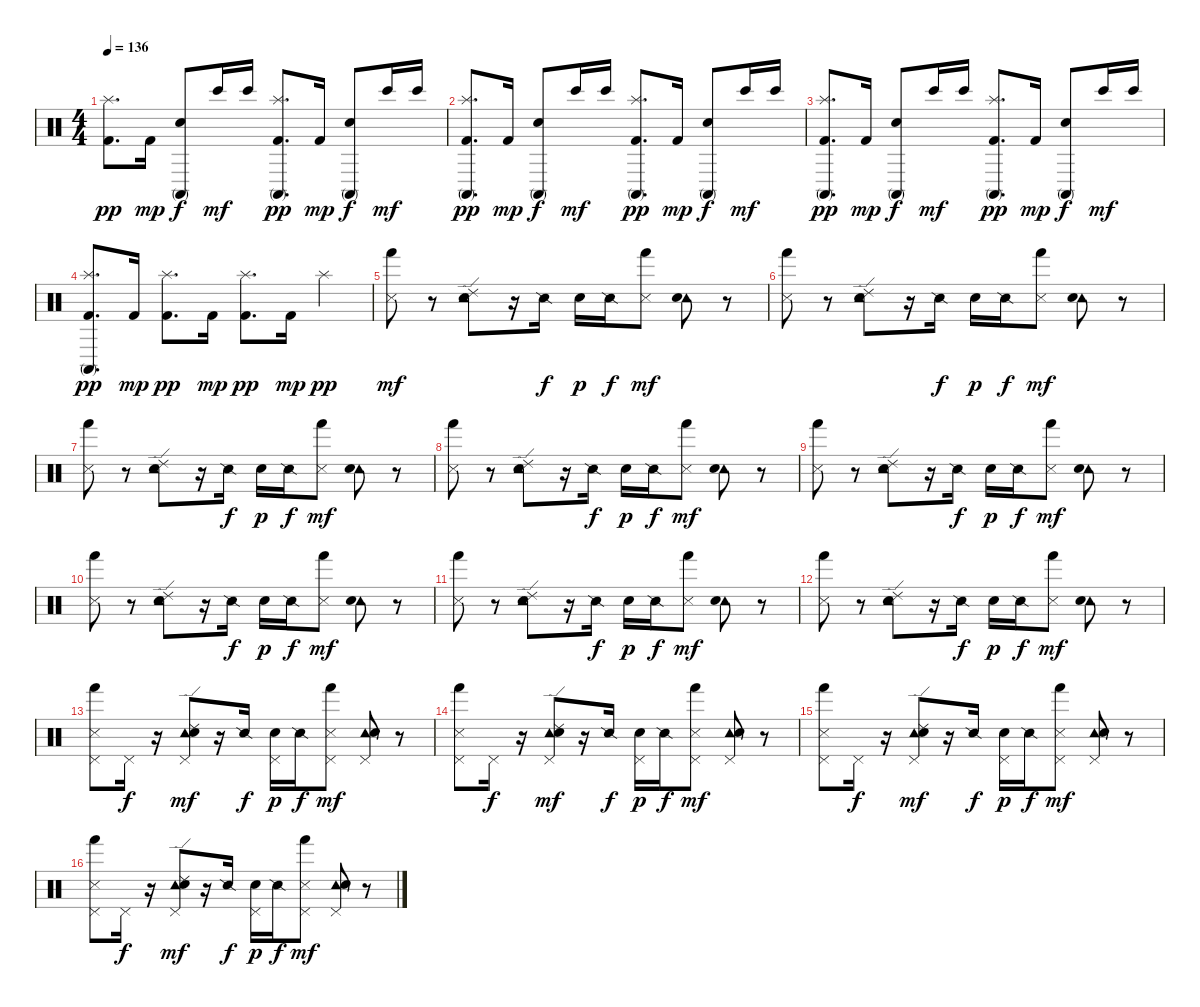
\track "" {instrument percussion}
\staff {score}
\articulation defaults
\ts (4 4)
\tempo 136
\clef neutral
\ks c
("Kick (hit) 2" "Splash (hit)").8{d dy pp} "Kick (hit) 2".16{dy mp} ("Snare (hit)" "Conga high (mute)").8{dy f} "Bongo High (hit)".16{dy mf} "Bongo High (hit)".16 ("Conga high (mute)" "Kick (hit) 2" "Splash (hit)").8{d dy pp} "Kick (hit) 2".16{dy mp} ("Snare (hit)" "Conga high (mute)").8{dy f} "Bongo High (hit)".16{dy mf} "Bongo High (hit)".16 |
("Conga high (mute)" "Kick (hit) 2" "Splash (hit)").8{d dy pp} "Kick (hit) 2".16{dy mp} ("Snare (hit)" "Conga high (mute)").8{dy f} "Bongo High (hit)".16{dy mf} "Bongo High (hit)".16 ("Conga high (mute)" "Kick (hit) 2" "Splash (hit)").8{d dy pp} "Kick (hit) 2".16{dy mp} ("Snare (hit)" "Conga high (mute)").8{dy f} "Bongo High (hit)".16{dy mf} "Bongo High (hit)".16 |
("Conga high (mute)" "Kick (hit) 2" "Splash (hit)").8{d dy pp} "Kick (hit) 2".16{dy mp} ("Snare (hit)" "Conga high (mute)").8{dy f} "Bongo High (hit)".16{dy mf} "Bongo High (hit)".16 ("Conga high (mute)" "Kick (hit) 2" "Splash (hit)").8{d dy pp} "Kick (hit) 2".16{dy mp} ("Snare (hit)" "Conga high (mute)").8{dy f} "Bongo High (hit)".16{dy mf} "Bongo High (hit)".16 |
("Conga high (mute)" "Kick (hit) 2" "Splash (hit)").8{d dy pp} "Kick (hit) 2".16{dy mp} ("Kick (hit) 2" "Splash (hit)").8{d dy pp} "Kick (hit) 2".16{dy mp} ("Kick (hit) 2" "Splash (hit)").8{d dy pp} "Kick (hit) 2".16{dy mp} "Splash (hit)".4{dy pp} |
("Hand (hit)" "Metronome (hit)").8{dy mf} r.8 ("Tambourine (hit)" "Metronome (bell)" "Ride (edge) 2").8 r.16 "Snare (side stick) 2".16{dy f} "Metronome (bell)".16{dy p} "Snare (side stick) 2".16{dy f} ("Metronome (hit)" "Hand (hit)").8{dy mf} ("Tambourine (hit)" "Metronome (bell)").8 r.8 |
("Hand (hit)" "Metronome (hit)").8 r.8 ("Tambourine (hit)" "Metronome (bell)" "Ride (edge) 2").8 r.16 "Snare (side stick) 2".16{dy f} "Metronome (bell)".16{dy p} "Snare (side stick) 2".16{dy f} ("Metronome (hit)" "Hand (hit)").8{dy mf} ("Tambourine (hit)" "Metronome (bell)").8 r.8 |
("Hand (hit)" "Metronome (hit)").8 r.8 ("Tambourine (hit)" "Metronome (bell)" "Ride (edge) 2").8 r.16 "Snare (side stick) 2".16{dy f} "Metronome (bell)".16{dy p} "Snare (side stick) 2".16{dy f} ("Metronome (hit)" "Hand (hit)").8{dy mf} ("Tambourine (hit)" "Metronome (bell)").8 r.8 |
("Hand (hit)" "Metronome (hit)").8 r.8 ("Tambourine (hit)" "Metronome (bell)" "Ride (edge) 2").8 r.16 "Snare (side stick) 2".16{dy f} "Metronome (bell)".16{dy p} "Snare (side stick) 2".16{dy f} ("Metronome (hit)" "Hand (hit)").8{dy mf} ("Tambourine (hit)" "Metronome (bell)").8 r.8 |
("Hand (hit)" "Metronome (hit)").8 r.8 ("Tambourine (hit)" "Metronome (bell)" "Ride (edge) 2").8 r.16 "Snare (side stick) 2".16{dy f} "Metronome (bell)".16{dy p} "Snare (side stick) 2".16{dy f} ("Metronome (hit)" "Hand (hit)").8{dy mf} ("Tambourine (hit)" "Metronome (bell)").8 r.8 |
("Hand (hit)" "Metronome (hit)").8 r.8 ("Tambourine (hit)" "Metronome (bell)" "Ride (edge) 2").8 r.16 "Snare (side stick) 2".16{dy f} "Metronome (bell)".16{dy p} "Snare (side stick) 2".16{dy f} ("Metronome (hit)" "Hand (hit)").8{dy mf} ("Tambourine (hit)" "Metronome (bell)").8 r.8 |
("Hand (hit)" "Metronome (hit)").8 r.8 ("Tambourine (hit)" "Metronome (bell)" "Ride (edge) 2").8 r.16 "Snare (side stick) 2".16{dy f} "Metronome (bell)".16{dy p} "Snare (side stick) 2".16{dy f} ("Metronome (hit)" "Hand (hit)").8{dy mf} ("Tambourine (hit)" "Metronome (bell)").8 r.8 |
("Hand (hit)" "Metronome (hit)").8 r.8 ("Tambourine (hit)" "Metronome (bell)" "Ride (edge) 2").8 r.16 "Snare (side stick) 2".16{dy f} "Metronome (bell)".16{dy p} "Snare (side stick) 2".16{dy f} ("Metronome (hit)" "Hand (hit)").8{dy mf} ("Tambourine (hit)" "Metronome (bell)").8 r.8 |
("Hand (hit)" "Pedal Hi-Hat (hit)" "Metronome (hit)").8 "Pedal Hi-Hat (hit)".16{dy f} r.16 ("Tambourine (hit)" "Metronome (bell)" "Ride (edge) 2" "Pedal Hi-Hat (hit)").8{dy mf} r.16 "Snare (side stick) 2".16{dy f} ("Metronome (bell)" "Pedal Hi-Hat (hit)").16{dy p} "Snare (side stick) 2".16{dy f} ("Metronome (hit)" "Hand (hit)" "Pedal Hi-Hat (hit)").8{dy mf} ("Tambourine (hit)" "Metronome (bell)" "Pedal Hi-Hat (hit)").8 r.8 |
("Hand (hit)" "Pedal Hi-Hat (hit)" "Metronome (hit)").8 "Pedal Hi-Hat (hit)".16{dy f} r.16 ("Tambourine (hit)" "Metronome (bell)" "Ride (edge) 2" "Pedal Hi-Hat (hit)").8{dy mf} r.16 "Snare (side stick) 2".16{dy f} ("Metronome (bell)" "Pedal Hi-Hat (hit)").16{dy p} "Snare (side stick) 2".16{dy f} ("Metronome (hit)" "Hand (hit)" "Pedal Hi-Hat (hit)").8{dy mf} ("Tambourine (hit)" "Metronome (bell)" "Pedal Hi-Hat (hit)").8 r.8 |
("Hand (hit)" "Pedal Hi-Hat (hit)" "Metronome (hit)").8 "Pedal Hi-Hat (hit)".16{dy f} r.16 ("Tambourine (hit)" "Metronome (bell)" "Ride (edge) 2" "Pedal Hi-Hat (hit)").8{dy mf} r.16 "Snare (side stick) 2".16{dy f} ("Metronome (bell)" "Pedal Hi-Hat (hit)").16{dy p} "Snare (side stick) 2".16{dy f} ("Metronome (hit)" "Hand (hit)" "Pedal Hi-Hat (hit)").8{dy mf} ("Tambourine (hit)" "Metronome (bell)" "Pedal Hi-Hat (hit)").8 r.8 |
("Hand (hit)" "Pedal Hi-Hat (hit)" "Metronome (hit)").8 "Pedal Hi-Hat (hit)".16{dy f} r.16 ("Tambourine (hit)" "Metronome (bell)" "Ride (edge) 2" "Pedal Hi-Hat (hit)").8{dy mf} r.16 "Snare (side stick) 2".16{dy f} ("Metronome (bell)" "Pedal Hi-Hat (hit)").16{dy p} "Snare (side stick) 2".16{dy f} ("Metronome (hit)" "Hand (hit)" "Pedal Hi-Hat (hit)").8{dy mf} ("Tambourine (hit)" "Metronome (bell)" "Pedal Hi-Hat (hit)").8 r.8
